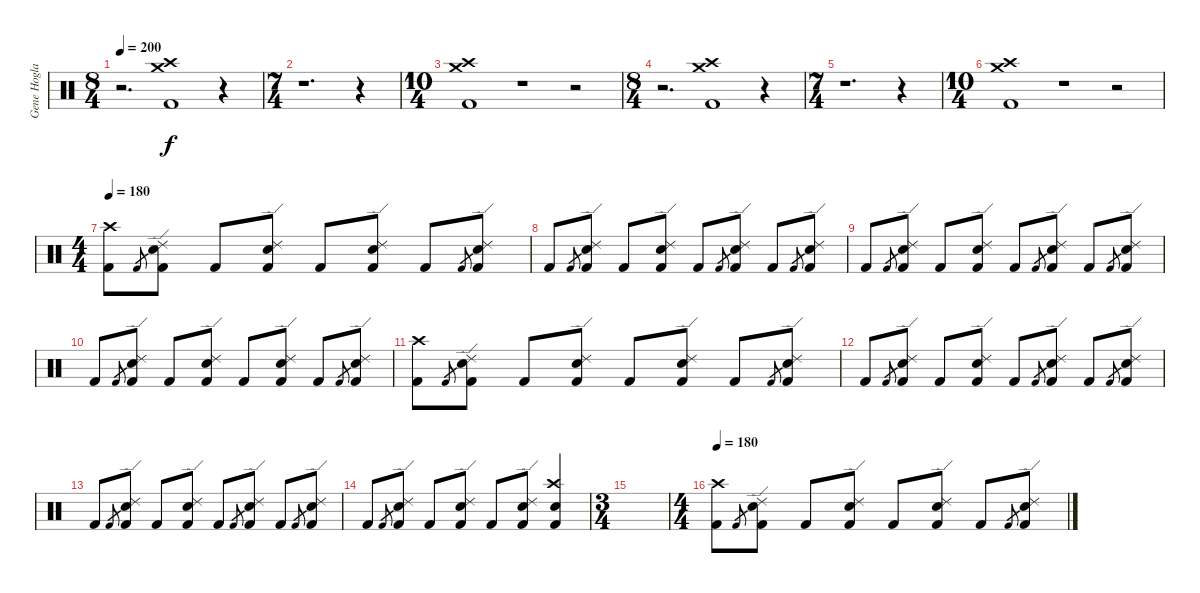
\track ("Gene Hoglan" "Gene Hogla") {instrument percussion}
\staff {score}
\articulation defaults
\ts (8 4)
\tempo 200
\clef neutral
\ks c
r.2{d dy f} ("Kick (hit) 2" "Crash medium (hit)" "Crash high (hit)").1 r.4 |
\ts (7 4)
r.1{d} r.4 |
\ts (10 4)
("Kick (hit) 2" "Crash medium (hit)" "Crash high (hit)").1 r.1 r.2 |
\ts (8 4)
r.2{d} ("Kick (hit) 2" "Crash medium (hit)" "Crash high (hit)").1 r.4 |
\ts (7 4)
r.1{d} r.4 |
\ts (10 4)
("Kick (hit) 2" "Crash medium (hit)" "Crash high (hit)").1 r.1 r.2 |
\ts (4 4)
\tempo 180
("Kick (hit) 2" "Crash high (hit)").8 "Kick (hit) 2".8{gr} ("Kick (hit) 2" "Electric Snare (hit)" "Ride (edge) 2").8 "Kick (hit) 2".8 ("Kick (hit) 2" "Electric Snare (hit)" "Ride (edge) 2").8 "Kick (hit) 2".8 ("Kick (hit) 2" "Electric Snare (hit)" "Ride (edge) 2").8 "Kick (hit) 2".8 "Kick (hit) 2".8{gr} ("Kick (hit) 2" "Electric Snare (hit)" "Ride (edge) 2").8 |
"Kick (hit) 2".8 "Kick (hit) 2".8{gr} ("Kick (hit) 2" "Electric Snare (hit)" "Ride (edge) 2").8 "Kick (hit) 2".8 ("Kick (hit) 2" "Electric Snare (hit)" "Ride (edge) 2").8 "Kick (hit) 2".8 "Kick (hit) 2".8{gr} ("Kick (hit) 2" "Electric Snare (hit)" "Ride (edge) 2").8 "Kick (hit) 2".8 "Kick (hit) 2".8{gr} ("Kick (hit) 2" "Electric Snare (hit)" "Ride (edge) 2").8 |
"Kick (hit) 2".8 "Kick (hit) 2".8{gr} ("Kick (hit) 2" "Electric Snare (hit)" "Ride (edge) 2").8 "Kick (hit) 2".8 ("Kick (hit) 2" "Electric Snare (hit)" "Ride (edge) 2").8 "Kick (hit) 2".8 "Kick (hit) 2".8{gr} ("Kick (hit) 2" "Electric Snare (hit)" "Ride (edge) 2").8 "Kick (hit) 2".8 "Kick (hit) 2".8{gr} ("Kick (hit) 2" "Electric Snare (hit)" "Ride (edge) 2").8 |
"Kick (hit) 2".8 "Kick (hit) 2".8{gr} ("Kick (hit) 2" "Electric Snare (hit)" "Ride (edge) 2").8 "Kick (hit) 2".8 ("Kick (hit) 2" "Electric Snare (hit)" "Ride (edge) 2").8 "Kick (hit) 2".8 ("Kick (hit) 2" "Electric Snare (hit)" "Ride (edge) 2").8 "Kick (hit) 2".8 "Kick (hit) 2".8{gr} ("Kick (hit) 2" "Electric Snare (hit)" "Ride (edge) 2").8 |
("Kick (hit) 2" "Crash high (hit)").8 "Kick (hit) 2".8{gr} ("Kick (hit) 2" "Electric Snare (hit)" "Ride (edge) 2").8 "Kick (hit) 2".8 ("Kick (hit) 2" "Electric Snare (hit)" "Ride (edge) 2").8 "Kick (hit) 2".8 ("Kick (hit) 2" "Electric Snare (hit)" "Ride (edge) 2").8 "Kick (hit) 2".8 "Kick (hit) 2".8{gr} ("Kick (hit) 2" "Electric Snare (hit)" "Ride (edge) 2").8 |
"Kick (hit) 2".8 "Kick (hit) 2".8{gr} ("Kick (hit) 2" "Electric Snare (hit)" "Ride (edge) 2").8 "Kick (hit) 2".8 ("Kick (hit) 2" "Electric Snare (hit)" "Ride (edge) 2").8 "Kick (hit) 2".8 "Kick (hit) 2".8{gr} ("Kick (hit) 2" "Electric Snare (hit)" "Ride (edge) 2").8 "Kick (hit) 2".8 "Kick (hit) 2".8{gr} ("Kick (hit) 2" "Electric Snare (hit)" "Ride (edge) 2").8 |
"Kick (hit) 2".8 "Kick (hit) 2".8{gr} ("Kick (hit) 2" "Electric Snare (hit)" "Ride (edge) 2").8 "Kick (hit) 2".8 ("Kick (hit) 2" "Electric Snare (hit)" "Ride (edge) 2").8 "Kick (hit) 2".8 "Kick (hit) 2".8{gr} ("Kick (hit) 2" "Electric Snare (hit)" "Ride (edge) 2").8 "Kick (hit) 2".8 "Kick (hit) 2".8{gr} ("Kick (hit) 2" "Electric Snare (hit)" "Ride (edge) 2").8 |
"Kick (hit) 2".8 "Kick (hit) 2".8{gr} ("Kick (hit) 2" "Electric Snare (hit)" "Ride (edge) 2").8 "Kick (hit) 2".8 ("Kick (hit) 2" "Electric Snare (hit)" "Ride (edge) 2").8 "Kick (hit) 2".8 ("Kick (hit) 2" "Electric Snare (hit)" "Ride (edge) 2").8 ("Kick (hit) 2" "Electric Snare (hit)" "Crash high (hit)").4 |
\ts (3 4)
|
\ts (4 4)
\tempo 180
("Kick (hit) 2" "Crash high (hit)").8 "Kick (hit) 2".8{gr} ("Kick (hit) 2" "Electric Snare (hit)" "Ride (edge) 2").8 "Kick (hit) 2".8 ("Kick (hit) 2" "Electric Snare (hit)" "Ride (edge) 2").8 "Kick (hit) 2".8 ("Kick (hit) 2" "Electric Snare (hit)" "Ride (edge) 2").8 "Kick (hit) 2".8 "Kick (hit) 2".8{gr} ("Kick (hit) 2" "Electric Snare (hit)" "Ride (edge) 2").8
